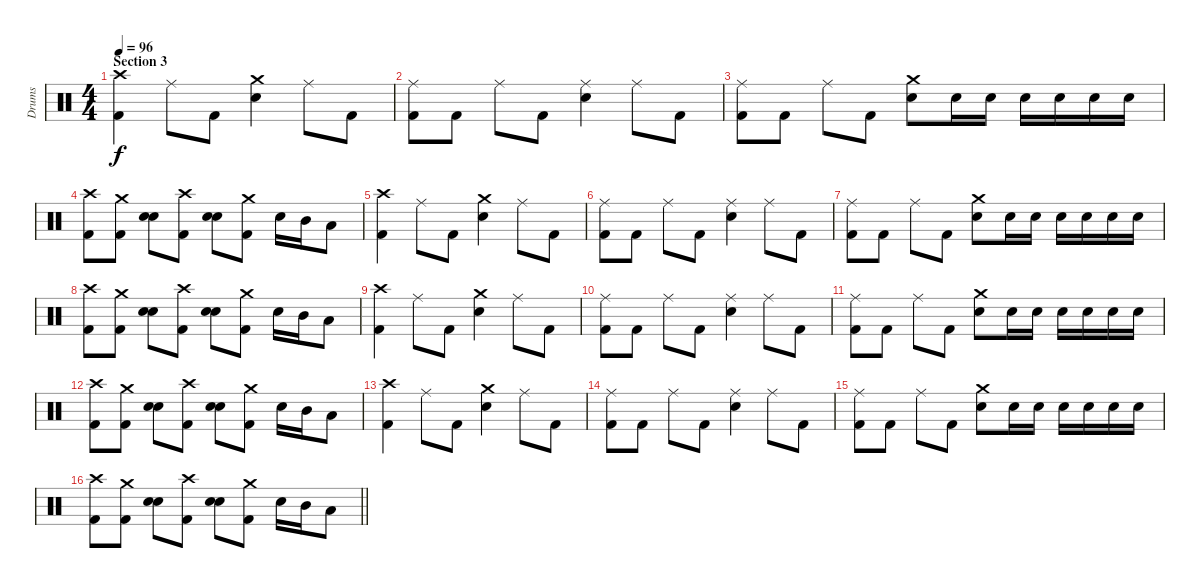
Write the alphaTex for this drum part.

\track ("Drums" "Drums") {instrument percussion}
\staff {score}
\articulation defaults
\ts (4 4)
\section ("" "Section 3")
\tempo 96
\clef neutral
\ks c
("Crash high (hit)" "Kick (hit) 2").4{dy f} "Ride (middle)".8 "Kick (hit) 2".8 ("Crash medium (hit)" "Electric Snare (hit)").4 "Ride (middle)".8 "Kick (hit) 2".8 |
("Ride (middle)" "Kick (hit) 2").8 "Kick (hit) 2".8 "Ride (middle)".8 "Kick (hit) 2".8 ("Ride (middle)" "Electric Snare (hit)").4 "Ride (middle)".8 "Kick (hit) 2".8 |
("Ride (middle)" "Kick (hit) 2").8 "Kick (hit) 2".8 "Ride (middle)".8 "Kick (hit) 2".8 ("Crash medium (hit)" "Electric Snare (hit)").8 "Electric Snare (hit)".16 "Electric Snare (hit)".16 "Electric Snare (hit)".16 "Electric Snare (hit)".16 "Electric Snare (hit)".16 "Electric Snare (hit)".16 |
("Crash high (hit)" "Kick (hit) 2").8 ("Crash medium (hit)" "Kick (hit) 2").8 ("Electric Snare (hit)" "Electric Snare (hit)").8{bu 120} ("Crash high (hit)" "Kick (hit) 2").8 ("Electric Snare (hit)" "Electric Snare (hit)").8{bu 120} ("Crash medium (hit)" "Kick (hit) 2").8 "Electric Snare (hit)".16 "Mid Tom (hit)".16 "Low Tom (hit)".8 |
("Crash high (hit)" "Kick (hit) 2").4 "Ride (middle)".8 "Kick (hit) 2".8 ("Crash medium (hit)" "Electric Snare (hit)").4 "Ride (middle)".8 "Kick (hit) 2".8 |
("Ride (middle)" "Kick (hit) 2").8 "Kick (hit) 2".8 "Ride (middle)".8 "Kick (hit) 2".8 ("Ride (middle)" "Electric Snare (hit)").4 "Ride (middle)".8 "Kick (hit) 2".8 |
("Ride (middle)" "Kick (hit) 2").8 "Kick (hit) 2".8 "Ride (middle)".8 "Kick (hit) 2".8 ("Crash medium (hit)" "Electric Snare (hit)").8 "Electric Snare (hit)".16 "Electric Snare (hit)".16 "Electric Snare (hit)".16 "Electric Snare (hit)".16 "Electric Snare (hit)".16 "Electric Snare (hit)".16 |
("Crash high (hit)" "Kick (hit) 2").8 ("Crash medium (hit)" "Kick (hit) 2").8 ("Electric Snare (hit)" "Electric Snare (hit)").8{bu 120} ("Crash high (hit)" "Kick (hit) 2").8 ("Electric Snare (hit)" "Electric Snare (hit)").8{bu 120} ("Crash medium (hit)" "Kick (hit) 2").8 "Electric Snare (hit)".16 "Mid Tom (hit)".16 "Low Tom (hit)".8 |
("Crash high (hit)" "Kick (hit) 2").4 "Ride (middle)".8 "Kick (hit) 2".8 ("Crash medium (hit)" "Electric Snare (hit)").4 "Ride (middle)".8 "Kick (hit) 2".8 |
("Ride (middle)" "Kick (hit) 2").8 "Kick (hit) 2".8 "Ride (middle)".8 "Kick (hit) 2".8 ("Ride (middle)" "Electric Snare (hit)").4 "Ride (middle)".8 "Kick (hit) 2".8 |
("Ride (middle)" "Kick (hit) 2").8 "Kick (hit) 2".8 "Ride (middle)".8 "Kick (hit) 2".8 ("Crash medium (hit)" "Electric Snare (hit)").8 "Electric Snare (hit)".16 "Electric Snare (hit)".16 "Electric Snare (hit)".16 "Electric Snare (hit)".16 "Electric Snare (hit)".16 "Electric Snare (hit)".16 |
("Crash high (hit)" "Kick (hit) 2").8 ("Crash medium (hit)" "Kick (hit) 2").8 ("Electric Snare (hit)" "Electric Snare (hit)").8{bu 120} ("Crash high (hit)" "Kick (hit) 2").8 ("Electric Snare (hit)" "Electric Snare (hit)").8{bu 120} ("Crash medium (hit)" "Kick (hit) 2").8 "Electric Snare (hit)".16 "Mid Tom (hit)".16 "Low Tom (hit)".8 |
("Crash high (hit)" "Kick (hit) 2").4 "Ride (middle)".8 "Kick (hit) 2".8 ("Crash medium (hit)" "Electric Snare (hit)").4 "Ride (middle)".8 "Kick (hit) 2".8 |
("Ride (middle)" "Kick (hit) 2").8 "Kick (hit) 2".8 "Ride (middle)".8 "Kick (hit) 2".8 ("Ride (middle)" "Electric Snare (hit)").4 "Ride (middle)".8 "Kick (hit) 2".8 |
("Ride (middle)" "Kick (hit) 2").8 "Kick (hit) 2".8 "Ride (middle)".8 "Kick (hit) 2".8 ("Crash medium (hit)" "Electric Snare (hit)").8 "Electric Snare (hit)".16 "Electric Snare (hit)".16 "Electric Snare (hit)".16 "Electric Snare (hit)".16 "Electric Snare (hit)".16 "Electric Snare (hit)".16 |
\barLineRight lightlight
("Crash high (hit)" "Kick (hit) 2").8 ("Crash medium (hit)" "Kick (hit) 2").8 ("Electric Snare (hit)" "Electric Snare (hit)").8{bu 120} ("Crash high (hit)" "Kick (hit) 2").8 ("Electric Snare (hit)" "Electric Snare (hit)").8{bu 120} ("Crash medium (hit)" "Kick (hit) 2").8 "Electric Snare (hit)".16 "Mid Tom (hit)".16 "Low Tom (hit)".8
